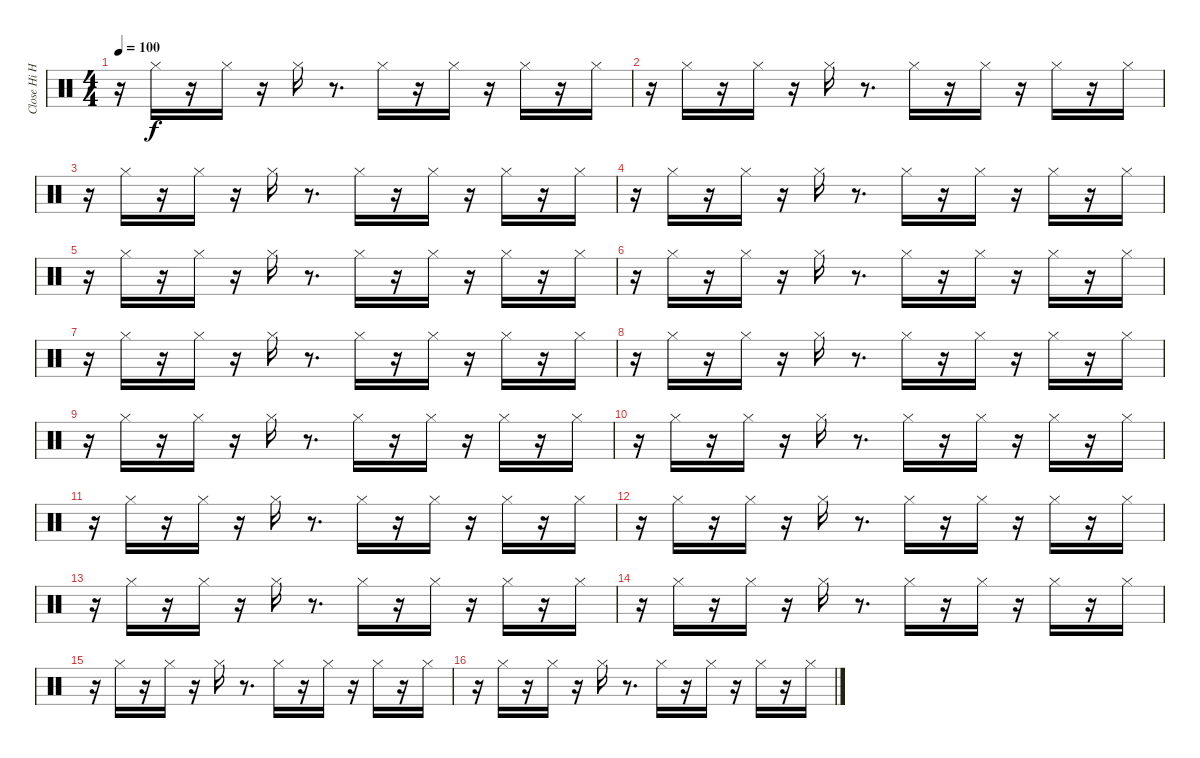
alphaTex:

\track ("Close Hi Hat" "Close Hi H") {instrument percussion}
\staff {score}
\articulation defaults
\ts (4 4)
\tempo 100
\clef neutral
\ks c
r.16{dy f} "Hi-Hat (closed)".16 r.16 "Hi-Hat (closed)".16 r.16 "Hi-Hat (closed)".16 r.8{d} "Hi-Hat (closed)".16 r.16 "Hi-Hat (closed)".16 r.16 "Hi-Hat (closed)".16 r.16 "Hi-Hat (closed)".16 |
r.16 "Hi-Hat (closed)".16 r.16 "Hi-Hat (closed)".16 r.16 "Hi-Hat (closed)".16 r.8{d} "Hi-Hat (closed)".16 r.16 "Hi-Hat (closed)".16 r.16 "Hi-Hat (closed)".16 r.16 "Hi-Hat (closed)".16 |
r.16 "Hi-Hat (closed)".16 r.16 "Hi-Hat (closed)".16 r.16 "Hi-Hat (closed)".16 r.8{d} "Hi-Hat (closed)".16 r.16 "Hi-Hat (closed)".16 r.16 "Hi-Hat (closed)".16 r.16 "Hi-Hat (closed)".16 |
r.16 "Hi-Hat (closed)".16 r.16 "Hi-Hat (closed)".16 r.16 "Hi-Hat (closed)".16 r.8{d} "Hi-Hat (closed)".16 r.16 "Hi-Hat (closed)".16 r.16 "Hi-Hat (closed)".16 r.16 "Hi-Hat (closed)".16 |
r.16 "Hi-Hat (closed)".16 r.16 "Hi-Hat (closed)".16 r.16 "Hi-Hat (closed)".16 r.8{d} "Hi-Hat (closed)".16 r.16 "Hi-Hat (closed)".16 r.16 "Hi-Hat (closed)".16 r.16 "Hi-Hat (closed)".16 |
r.16 "Hi-Hat (closed)".16 r.16 "Hi-Hat (closed)".16 r.16 "Hi-Hat (closed)".16 r.8{d} "Hi-Hat (closed)".16 r.16 "Hi-Hat (closed)".16 r.16 "Hi-Hat (closed)".16 r.16 "Hi-Hat (closed)".16 |
r.16 "Hi-Hat (closed)".16 r.16 "Hi-Hat (closed)".16 r.16 "Hi-Hat (closed)".16 r.8{d} "Hi-Hat (closed)".16 r.16 "Hi-Hat (closed)".16 r.16 "Hi-Hat (closed)".16 r.16 "Hi-Hat (closed)".16 |
r.16 "Hi-Hat (closed)".16 r.16 "Hi-Hat (closed)".16 r.16 "Hi-Hat (closed)".16 r.8{d} "Hi-Hat (closed)".16 r.16 "Hi-Hat (closed)".16 r.16 "Hi-Hat (closed)".16 r.16 "Hi-Hat (closed)".16 |
r.16 "Hi-Hat (closed)".16 r.16 "Hi-Hat (closed)".16 r.16 "Hi-Hat (closed)".16 r.8{d} "Hi-Hat (closed)".16 r.16 "Hi-Hat (closed)".16 r.16 "Hi-Hat (closed)".16 r.16 "Hi-Hat (closed)".16 |
r.16 "Hi-Hat (closed)".16 r.16 "Hi-Hat (closed)".16 r.16 "Hi-Hat (closed)".16 r.8{d} "Hi-Hat (closed)".16 r.16 "Hi-Hat (closed)".16 r.16 "Hi-Hat (closed)".16 r.16 "Hi-Hat (closed)".16 |
r.16 "Hi-Hat (closed)".16 r.16 "Hi-Hat (closed)".16 r.16 "Hi-Hat (closed)".16 r.8{d} "Hi-Hat (closed)".16 r.16 "Hi-Hat (closed)".16 r.16 "Hi-Hat (closed)".16 r.16 "Hi-Hat (closed)".16 |
r.16 "Hi-Hat (closed)".16 r.16 "Hi-Hat (closed)".16 r.16 "Hi-Hat (closed)".16 r.8{d} "Hi-Hat (closed)".16 r.16 "Hi-Hat (closed)".16 r.16 "Hi-Hat (closed)".16 r.16 "Hi-Hat (closed)".16 |
r.16 "Hi-Hat (closed)".16 r.16 "Hi-Hat (closed)".16 r.16 "Hi-Hat (closed)".16 r.8{d} "Hi-Hat (closed)".16 r.16 "Hi-Hat (closed)".16 r.16 "Hi-Hat (closed)".16 r.16 "Hi-Hat (closed)".16 |
r.16 "Hi-Hat (closed)".16 r.16 "Hi-Hat (closed)".16 r.16 "Hi-Hat (closed)".16 r.8{d} "Hi-Hat (closed)".16 r.16 "Hi-Hat (closed)".16 r.16 "Hi-Hat (closed)".16 r.16 "Hi-Hat (closed)".16 |
r.16 "Hi-Hat (closed)".16 r.16 "Hi-Hat (closed)".16 r.16 "Hi-Hat (closed)".16 r.8{d} "Hi-Hat (closed)".16 r.16 "Hi-Hat (closed)".16 r.16 "Hi-Hat (closed)".16 r.16 "Hi-Hat (closed)".16 |
r.16 "Hi-Hat (closed)".16 r.16 "Hi-Hat (closed)".16 r.16 "Hi-Hat (closed)".16 r.8{d} "Hi-Hat (closed)".16 r.16 "Hi-Hat (closed)".16 r.16 "Hi-Hat (closed)".16 r.16 "Hi-Hat (closed)".16
